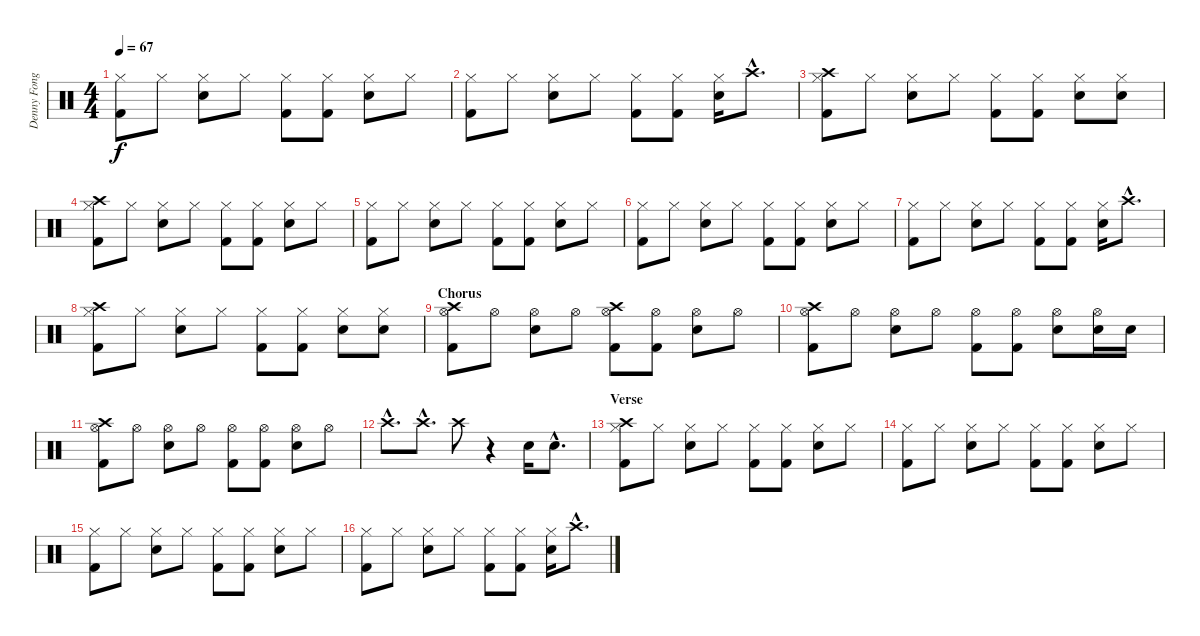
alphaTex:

\track ("Denny Fongheiser - Drums" "Denny Fong") {instrument percussion}
\staff {score}
\articulation defaults
\ts (4 4)
\tempo 67
\clef neutral
\ks c
("Hi-Hat (closed)" "Kick (hit) 2").8{dy f} "Hi-Hat (closed)".8 ("Hi-Hat (closed)" "Snare (hit) 2").8 "Hi-Hat (closed)".8 ("Hi-Hat (closed)" "Kick (hit) 2").8 ("Hi-Hat (closed)" "Kick (hit) 2").8 ("Hi-Hat (closed)" "Snare (hit) 2").8 "Hi-Hat (closed)".8 |
("Hi-Hat (closed)" "Kick (hit) 2").8 "Hi-Hat (closed)".8 ("Hi-Hat (closed)" "Snare (hit) 2").8 "Hi-Hat (closed)".8 ("Hi-Hat (closed)" "Kick (hit) 2").8 ("Hi-Hat (closed)" "Kick (hit) 2").8 ("Hi-Hat (closed)" "Snare (hit) 2").16 "Crash high (hit)"{hac}.8{d} |
("Crash high (hit)" "Hi-Hat (closed)" "Kick (hit) 2").8 "Hi-Hat (closed)".8 ("Hi-Hat (closed)" "Snare (hit) 2").8 "Hi-Hat (closed)".8 ("Hi-Hat (closed)" "Kick (hit) 2").8 ("Hi-Hat (closed)" "Kick (hit) 2").8 ("Hi-Hat (closed)" "Snare (hit) 2").8 ("Hi-Hat (closed)" "Snare (hit) 2").8 |
("Hi-Hat (closed)" "Kick (hit) 2" "Crash high (hit)").8 "Hi-Hat (closed)".8 ("Hi-Hat (closed)" "Snare (hit) 2").8 "Hi-Hat (closed)".8 ("Hi-Hat (closed)" "Kick (hit) 2").8 ("Hi-Hat (closed)" "Kick (hit) 2").8 ("Hi-Hat (closed)" "Snare (hit) 2").8 "Hi-Hat (closed)".8 |
("Hi-Hat (closed)" "Kick (hit) 2").8 "Hi-Hat (closed)".8 ("Hi-Hat (closed)" "Snare (hit) 2").8 "Hi-Hat (closed)".8 ("Hi-Hat (closed)" "Kick (hit) 2").8 ("Hi-Hat (closed)" "Kick (hit) 2").8 ("Hi-Hat (closed)" "Snare (hit) 2").8 "Hi-Hat (closed)".8 |
("Hi-Hat (closed)" "Kick (hit) 2").8 "Hi-Hat (closed)".8 ("Hi-Hat (closed)" "Snare (hit) 2").8 "Hi-Hat (closed)".8 ("Hi-Hat (closed)" "Kick (hit) 2").8 ("Hi-Hat (closed)" "Kick (hit) 2").8 ("Hi-Hat (closed)" "Snare (hit) 2").8 "Hi-Hat (closed)".8 |
("Hi-Hat (closed)" "Kick (hit) 2").8 "Hi-Hat (closed)".8 ("Hi-Hat (closed)" "Snare (hit) 2").8 "Hi-Hat (closed)".8 ("Hi-Hat (closed)" "Kick (hit) 2").8 ("Hi-Hat (closed)" "Kick (hit) 2").8 ("Hi-Hat (closed)" "Snare (hit) 2").16 "Crash high (hit)"{hac}.8{d} |
("Crash high (hit)" "Hi-Hat (closed)" "Kick (hit) 2").8 "Hi-Hat (closed)".8 ("Hi-Hat (closed)" "Snare (hit) 2").8 "Hi-Hat (closed)".8 ("Hi-Hat (closed)" "Kick (hit) 2").8 ("Hi-Hat (closed)" "Kick (hit) 2").8 ("Hi-Hat (closed)" "Snare (hit) 2").8 ("Hi-Hat (closed)" "Snare (hit) 2").8 |
\section ("" "Chorus")
("Hi-Hat (open)" "Kick (hit) 2" "Crash high (hit)").8 "Hi-Hat (open)".8 ("Hi-Hat (open)" "Snare (hit) 2").8 "Hi-Hat (open)".8 ("Hi-Hat (open)" "Kick (hit) 2" "Crash high (hit)").8 ("Hi-Hat (open)" "Kick (hit) 2").8 ("Hi-Hat (open)" "Snare (hit) 2").8 "Hi-Hat (open)".8 |
("Hi-Hat (open)" "Kick (hit) 2" "Crash high (hit)").8 "Hi-Hat (open)".8 ("Hi-Hat (open)" "Snare (hit) 2").8 "Hi-Hat (open)".8 ("Hi-Hat (open)" "Kick (hit) 2").8 ("Hi-Hat (open)" "Kick (hit) 2").8 ("Hi-Hat (open)" "Snare (hit) 2").8 ("Hi-Hat (open)" "Snare (hit) 2").16 "Snare (hit) 2".16 |
("Hi-Hat (open)" "Kick (hit) 2" "Crash high (hit)").8 "Hi-Hat (open)".8 ("Hi-Hat (open)" "Snare (hit) 2").8 "Hi-Hat (open)".8 ("Hi-Hat (open)" "Kick (hit) 2").8 ("Hi-Hat (open)" "Kick (hit) 2").8 ("Hi-Hat (open)" "Snare (hit) 2").8 "Hi-Hat (open)".8 |
"Crash high (hit)"{hac}.8{d} "Crash high (hit)"{hac}.8{d} "Crash high (hit)".8 r.4 "Snare (hit) 2".16 "Snare (hit) 2"{hac}.8{d} |
\section ("" "Verse")
("Hi-Hat (closed)" "Kick (hit) 2" "Crash high (hit)").8 "Hi-Hat (closed)".8 ("Hi-Hat (closed)" "Snare (hit) 2").8 "Hi-Hat (closed)".8 ("Hi-Hat (closed)" "Kick (hit) 2").8 ("Hi-Hat (closed)" "Kick (hit) 2").8 ("Hi-Hat (closed)" "Snare (hit) 2").8 "Hi-Hat (closed)".8 |
("Hi-Hat (closed)" "Kick (hit) 2").8 "Hi-Hat (closed)".8 ("Hi-Hat (closed)" "Snare (hit) 2").8 "Hi-Hat (closed)".8 ("Hi-Hat (closed)" "Kick (hit) 2").8 ("Hi-Hat (closed)" "Kick (hit) 2").8 ("Hi-Hat (closed)" "Snare (hit) 2").8 "Hi-Hat (closed)".8 |
("Hi-Hat (closed)" "Kick (hit) 2").8 "Hi-Hat (closed)".8 ("Hi-Hat (closed)" "Snare (hit) 2").8 "Hi-Hat (closed)".8 ("Hi-Hat (closed)" "Kick (hit) 2").8 ("Hi-Hat (closed)" "Kick (hit) 2").8 ("Hi-Hat (closed)" "Snare (hit) 2").8 "Hi-Hat (closed)".8 |
("Hi-Hat (closed)" "Kick (hit) 2").8 "Hi-Hat (closed)".8 ("Hi-Hat (closed)" "Snare (hit) 2").8 "Hi-Hat (closed)".8 ("Hi-Hat (closed)" "Kick (hit) 2").8 ("Hi-Hat (closed)" "Kick (hit) 2").8 ("Hi-Hat (closed)" "Snare (hit) 2").16 "Crash high (hit)"{hac}.8{d}
